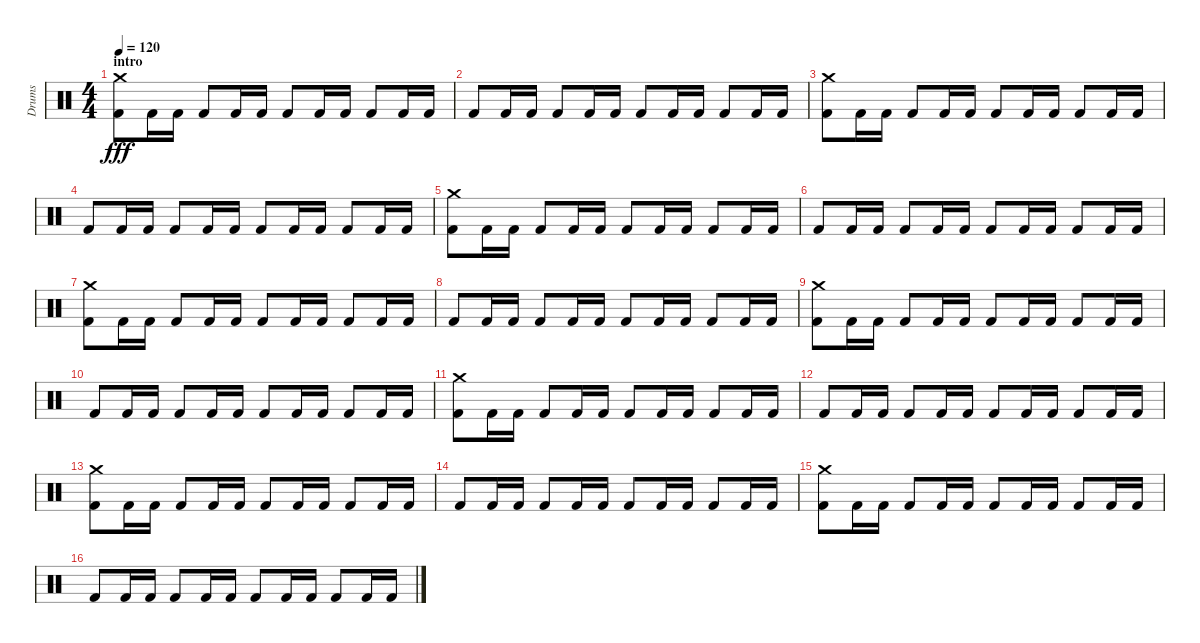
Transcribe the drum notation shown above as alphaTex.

\track ("Drums" "Drums") {instrument percussion}
\staff {score}
\articulation defaults
\ts (4 4)
\section ("" "intro")
\tempo 120
\clef neutral
\ks c
("Kick (hit) 2" "Crash medium (hit)").8{dy fff} "Kick (hit) 2".16 "Kick (hit) 2".16 "Kick (hit) 2".8 "Kick (hit) 2".16 "Kick (hit) 2".16 "Kick (hit) 2".8 "Kick (hit) 2".16 "Kick (hit) 2".16 "Kick (hit) 2".8 "Kick (hit) 2".16 "Kick (hit) 2".16 |
"Kick (hit) 2".8 "Kick (hit) 2".16 "Kick (hit) 2".16 "Kick (hit) 2".8 "Kick (hit) 2".16 "Kick (hit) 2".16 "Kick (hit) 2".8 "Kick (hit) 2".16 "Kick (hit) 2".16 "Kick (hit) 2".8 "Kick (hit) 2".16 "Kick (hit) 2".16 |
("Kick (hit) 2" "Crash medium (hit)").8 "Kick (hit) 2".16 "Kick (hit) 2".16 "Kick (hit) 2".8 "Kick (hit) 2".16 "Kick (hit) 2".16 "Kick (hit) 2".8 "Kick (hit) 2".16 "Kick (hit) 2".16 "Kick (hit) 2".8 "Kick (hit) 2".16 "Kick (hit) 2".16 |
"Kick (hit) 2".8 "Kick (hit) 2".16 "Kick (hit) 2".16 "Kick (hit) 2".8 "Kick (hit) 2".16 "Kick (hit) 2".16 "Kick (hit) 2".8 "Kick (hit) 2".16 "Kick (hit) 2".16 "Kick (hit) 2".8 "Kick (hit) 2".16 "Kick (hit) 2".16 |
("Kick (hit) 2" "Crash medium (hit)").8 "Kick (hit) 2".16 "Kick (hit) 2".16 "Kick (hit) 2".8 "Kick (hit) 2".16 "Kick (hit) 2".16 "Kick (hit) 2".8 "Kick (hit) 2".16 "Kick (hit) 2".16 "Kick (hit) 2".8 "Kick (hit) 2".16 "Kick (hit) 2".16 |
"Kick (hit) 2".8 "Kick (hit) 2".16 "Kick (hit) 2".16 "Kick (hit) 2".8 "Kick (hit) 2".16 "Kick (hit) 2".16 "Kick (hit) 2".8 "Kick (hit) 2".16 "Kick (hit) 2".16 "Kick (hit) 2".8 "Kick (hit) 2".16 "Kick (hit) 2".16 |
("Kick (hit) 2" "Crash medium (hit)").8 "Kick (hit) 2".16 "Kick (hit) 2".16 "Kick (hit) 2".8 "Kick (hit) 2".16 "Kick (hit) 2".16 "Kick (hit) 2".8 "Kick (hit) 2".16 "Kick (hit) 2".16 "Kick (hit) 2".8 "Kick (hit) 2".16 "Kick (hit) 2".16 |
"Kick (hit) 2".8 "Kick (hit) 2".16 "Kick (hit) 2".16 "Kick (hit) 2".8 "Kick (hit) 2".16 "Kick (hit) 2".16 "Kick (hit) 2".8 "Kick (hit) 2".16 "Kick (hit) 2".16 "Kick (hit) 2".8 "Kick (hit) 2".16 "Kick (hit) 2".16 |
("Kick (hit) 2" "Crash medium (hit)").8 "Kick (hit) 2".16 "Kick (hit) 2".16 "Kick (hit) 2".8 "Kick (hit) 2".16 "Kick (hit) 2".16 "Kick (hit) 2".8 "Kick (hit) 2".16 "Kick (hit) 2".16 "Kick (hit) 2".8 "Kick (hit) 2".16 "Kick (hit) 2".16 |
"Kick (hit) 2".8 "Kick (hit) 2".16 "Kick (hit) 2".16 "Kick (hit) 2".8 "Kick (hit) 2".16 "Kick (hit) 2".16 "Kick (hit) 2".8 "Kick (hit) 2".16 "Kick (hit) 2".16 "Kick (hit) 2".8 "Kick (hit) 2".16 "Kick (hit) 2".16 |
("Kick (hit) 2" "Crash medium (hit)").8 "Kick (hit) 2".16 "Kick (hit) 2".16 "Kick (hit) 2".8 "Kick (hit) 2".16 "Kick (hit) 2".16 "Kick (hit) 2".8 "Kick (hit) 2".16 "Kick (hit) 2".16 "Kick (hit) 2".8 "Kick (hit) 2".16 "Kick (hit) 2".16 |
"Kick (hit) 2".8 "Kick (hit) 2".16 "Kick (hit) 2".16 "Kick (hit) 2".8 "Kick (hit) 2".16 "Kick (hit) 2".16 "Kick (hit) 2".8 "Kick (hit) 2".16 "Kick (hit) 2".16 "Kick (hit) 2".8 "Kick (hit) 2".16 "Kick (hit) 2".16 |
("Kick (hit) 2" "Crash medium (hit)").8 "Kick (hit) 2".16 "Kick (hit) 2".16 "Kick (hit) 2".8 "Kick (hit) 2".16 "Kick (hit) 2".16 "Kick (hit) 2".8 "Kick (hit) 2".16 "Kick (hit) 2".16 "Kick (hit) 2".8 "Kick (hit) 2".16 "Kick (hit) 2".16 |
"Kick (hit) 2".8 "Kick (hit) 2".16 "Kick (hit) 2".16 "Kick (hit) 2".8 "Kick (hit) 2".16 "Kick (hit) 2".16 "Kick (hit) 2".8 "Kick (hit) 2".16 "Kick (hit) 2".16 "Kick (hit) 2".8 "Kick (hit) 2".16 "Kick (hit) 2".16 |
("Kick (hit) 2" "Crash medium (hit)").8 "Kick (hit) 2".16 "Kick (hit) 2".16 "Kick (hit) 2".8 "Kick (hit) 2".16 "Kick (hit) 2".16 "Kick (hit) 2".8 "Kick (hit) 2".16 "Kick (hit) 2".16 "Kick (hit) 2".8 "Kick (hit) 2".16 "Kick (hit) 2".16 |
"Kick (hit) 2".8 "Kick (hit) 2".16 "Kick (hit) 2".16 "Kick (hit) 2".8 "Kick (hit) 2".16 "Kick (hit) 2".16 "Kick (hit) 2".8 "Kick (hit) 2".16 "Kick (hit) 2".16 "Kick (hit) 2".8 "Kick (hit) 2".16 "Kick (hit) 2".16
